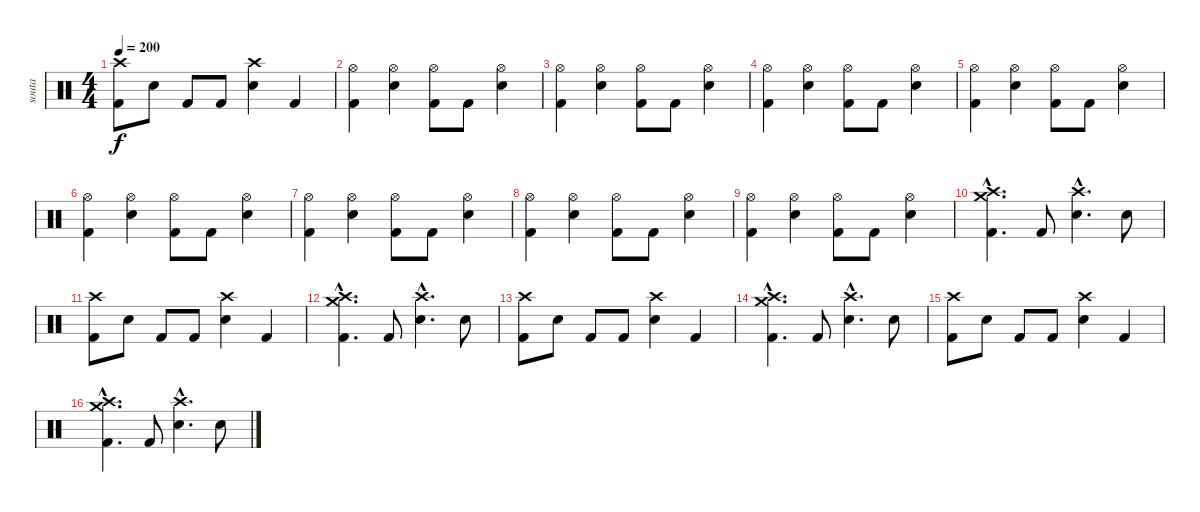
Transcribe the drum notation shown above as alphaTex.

\track ("souta" "souta") {instrument percussion}
\staff {score}
\articulation defaults
\ts (4 4)
\tempo 200
\clef neutral
\ks c
("Crash high (hit)" "Kick (hit) 2").8{dy f} "Snare (hit) 2".8 "Kick (hit) 2".8 "Kick (hit) 2".8 ("Crash high (hit)" "Snare (hit) 2").4 "Kick (hit) 2".4 |
("Hi-Hat (open)" "Kick (hit) 2").4 ("Hi-Hat (open)" "Snare (hit) 2").4 ("Hi-Hat (open)" "Kick (hit) 2").8 "Kick (hit) 2".8 ("Hi-Hat (open)" "Snare (hit) 2").4 |
("Hi-Hat (open)" "Kick (hit) 2").4 ("Hi-Hat (open)" "Snare (hit) 2").4 ("Hi-Hat (open)" "Kick (hit) 2").8 "Kick (hit) 2".8 ("Hi-Hat (open)" "Snare (hit) 2").4 |
("Hi-Hat (open)" "Kick (hit) 2").4 ("Hi-Hat (open)" "Snare (hit) 2").4 ("Hi-Hat (open)" "Kick (hit) 2").8 "Kick (hit) 2".8 ("Hi-Hat (open)" "Snare (hit) 2").4 |
("Hi-Hat (open)" "Kick (hit) 2").4 ("Hi-Hat (open)" "Snare (hit) 2").4 ("Hi-Hat (open)" "Kick (hit) 2").8 "Kick (hit) 2".8 ("Hi-Hat (open)" "Snare (hit) 2").4 |
("Hi-Hat (open)" "Kick (hit) 2").4 ("Hi-Hat (open)" "Snare (hit) 2").4 ("Hi-Hat (open)" "Kick (hit) 2").8 "Kick (hit) 2".8 ("Hi-Hat (open)" "Snare (hit) 2").4 |
("Hi-Hat (open)" "Kick (hit) 2").4 ("Hi-Hat (open)" "Snare (hit) 2").4 ("Hi-Hat (open)" "Kick (hit) 2").8 "Kick (hit) 2".8 ("Hi-Hat (open)" "Snare (hit) 2").4 |
("Hi-Hat (open)" "Kick (hit) 2").4 ("Hi-Hat (open)" "Snare (hit) 2").4 ("Hi-Hat (open)" "Kick (hit) 2").8 "Kick (hit) 2".8 ("Hi-Hat (open)" "Snare (hit) 2").4 |
("Hi-Hat (open)" "Kick (hit) 2").4 ("Hi-Hat (open)" "Snare (hit) 2").4 ("Hi-Hat (open)" "Kick (hit) 2").8 "Kick (hit) 2".8 ("Hi-Hat (open)" "Snare (hit) 2").4 |
("Crash high (hit)"{hac} "Kick (hit) 2"{hac} "Crash medium (hit)"{hac}).4{d} "Kick (hit) 2".8 ("Crash high (hit)"{hac} "Snare (hit) 2"{hac}).4{d} "Snare (hit) 2".8 |
("Crash high (hit)" "Kick (hit) 2").8 "Snare (hit) 2".8 "Kick (hit) 2".8 "Kick (hit) 2".8 ("Crash high (hit)" "Snare (hit) 2").4 "Kick (hit) 2".4 |
("Crash high (hit)"{hac} "Kick (hit) 2"{hac} "Crash medium (hit)"{hac}).4{d} "Kick (hit) 2".8 ("Crash high (hit)"{hac} "Snare (hit) 2"{hac}).4{d} "Snare (hit) 2".8 |
("Crash high (hit)" "Kick (hit) 2").8 "Snare (hit) 2".8 "Kick (hit) 2".8 "Kick (hit) 2".8 ("Crash high (hit)" "Snare (hit) 2").4 "Kick (hit) 2".4 |
("Crash high (hit)"{hac} "Kick (hit) 2"{hac} "Crash medium (hit)"{hac}).4{d} "Kick (hit) 2".8 ("Crash high (hit)"{hac} "Snare (hit) 2"{hac}).4{d} "Snare (hit) 2".8 |
("Crash high (hit)" "Kick (hit) 2").8 "Snare (hit) 2".8 "Kick (hit) 2".8 "Kick (hit) 2".8 ("Crash high (hit)" "Snare (hit) 2").4 "Kick (hit) 2".4 |
("Crash high (hit)"{hac} "Kick (hit) 2"{hac} "Crash medium (hit)"{hac}).4{d} "Kick (hit) 2".8 ("Crash high (hit)"{hac} "Snare (hit) 2"{hac}).4{d} "Snare (hit) 2".8
